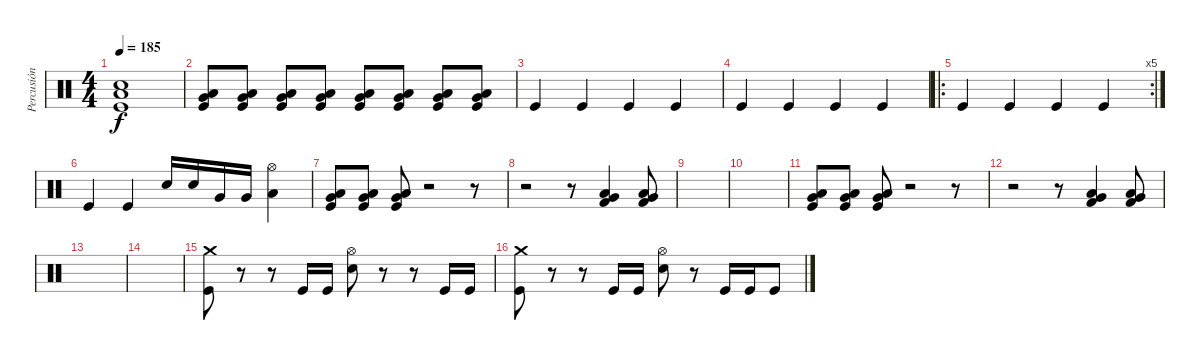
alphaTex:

\track ("Percusión" "Percusión") {instrument percussion}
\staff {score}
\articulation defaults
\ts (4 4)
\tempo 185
\clef neutral
\ks c
("Electric Snare (hit)" "Low Floor Tom (hit)" "Kick (hit)").1{dy f} |
("Low Floor Tom (hit)" "Very Low Tom (hit)" "Kick (hit)").8 ("Low Floor Tom (hit)" "Very Low Tom (hit)" "Kick (hit)").8 ("Low Floor Tom (hit)" "Very Low Tom (hit)" "Kick (hit)").8 ("Low Floor Tom (hit)" "Very Low Tom (hit)" "Kick (hit)").8 ("Low Floor Tom (hit)" "Very Low Tom (hit)" "Kick (hit)").8 ("Low Floor Tom (hit)" "Very Low Tom (hit)" "Kick (hit)").8 ("Low Floor Tom (hit)" "Very Low Tom (hit)" "Kick (hit)").8 ("Low Floor Tom (hit)" "Very Low Tom (hit)" "Kick (hit)").8 |
"Kick (hit)".4 "Kick (hit)".4 "Kick (hit)".4 "Kick (hit)".4 |
"Kick (hit)".4 "Kick (hit)".4 "Kick (hit)".4 "Kick (hit)".4 |
\ro
\rc 5 "Kick (hit)".4 "Kick (hit)".4 "Kick (hit)".4 "Kick (hit)".4
|
"Kick (hit)".4 "Kick (hit)".4 "Electric Snare (hit)".16 "Electric Snare (hit)".16 "Very Low Tom (hit)".16 "Very Low Tom (hit)".16 ("Hi-Hat (open)" "Low Floor Tom (hit)").4 |
("Kick (hit)" "Low Floor Tom (hit)" "Very Low Tom (hit)").8 ("Kick (hit)" "Low Floor Tom (hit)" "Very Low Tom (hit)").8 ("Kick (hit)" "Low Floor Tom (hit)" "Very Low Tom (hit)").8 r.2 r.8 |
r.2 r.8 ("Very Low Tom (hit)" "Low Floor Tom (hit)" "Kick (hit) 2").4 ("Very Low Tom (hit)" "Low Floor Tom (hit)" "Kick (hit) 2").8 |
|
|
("Kick (hit)" "Low Floor Tom (hit)" "Very Low Tom (hit)").8 ("Kick (hit)" "Low Floor Tom (hit)" "Very Low Tom (hit)").8 ("Kick (hit)" "Low Floor Tom (hit)" "Very Low Tom (hit)").8 r.2 r.8 |
r.2 r.8 ("Very Low Tom (hit)" "Low Floor Tom (hit)" "Kick (hit) 2").4 ("Very Low Tom (hit)" "Low Floor Tom (hit)" "Kick (hit) 2").8 |
|
|
("Crash medium (hit)" "Kick (hit)").8 r.8 r.8 "Kick (hit)".16 "Kick (hit)".16 ("Hi-Hat (open)" "Electric Snare (hit)").8 r.8 r.8 "Kick (hit)".16 "Kick (hit)".16 |
("Crash medium (hit)" "Kick (hit)").8 r.8 r.8 "Kick (hit)".16 "Kick (hit)".16 ("Hi-Hat (open)" "Electric Snare (hit)").8 r.8 "Kick (hit)".16 "Kick (hit)".16 "Kick (hit)".8
